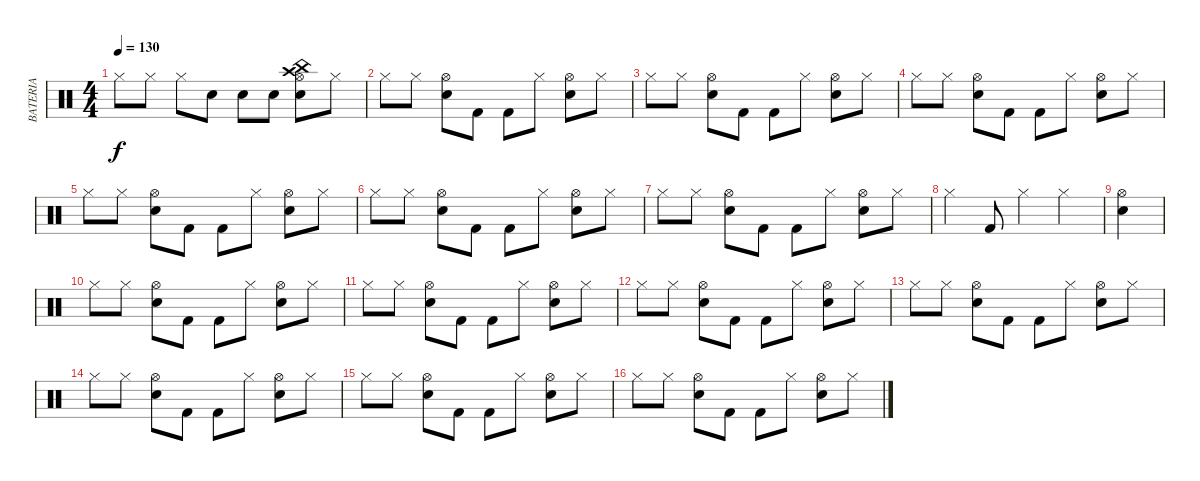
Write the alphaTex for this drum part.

\track ("BATERIA" "BATERIA") {mute instrument percussion}
\staff {score}
\articulation defaults
\ts (4 4)
\tempo 130
\clef neutral
\ks c "Hi-Hat (closed)".8{dy f} "Hi-Hat (closed)".8 "Hi-Hat (closed)".8 "Snare (hit) 2".8 "Snare (hit) 2".8 "Snare (hit) 2".8
("Snare (hit) 2" "Hi-Hat (open)" "China (hit)" "Crash high (hit)").8 "Hi-Hat (closed)".8 |
"Hi-Hat (closed)".8 "Hi-Hat (closed)".8 ("Snare (hit) 2" "Hi-Hat (open)").8 "Kick (hit) 2".8 "Kick (hit) 2".8 "Hi-Hat (closed)".8 ("Snare (hit) 2" "Hi-Hat (open)").8 "Hi-Hat (closed)".8 |
"Hi-Hat (closed)".8 "Hi-Hat (closed)".8 ("Snare (hit) 2" "Hi-Hat (open)").8 "Kick (hit) 2".8 "Kick (hit) 2".8 "Hi-Hat (closed)".8 ("Snare (hit) 2" "Hi-Hat (open)").8 "Hi-Hat (closed)".8 |
"Hi-Hat (closed)".8 "Hi-Hat (closed)".8 ("Snare (hit) 2" "Hi-Hat (open)").8 "Kick (hit) 2".8 "Kick (hit) 2".8 "Hi-Hat (closed)".8 ("Snare (hit) 2" "Hi-Hat (open)").8 "Hi-Hat (closed)".8 |
"Hi-Hat (closed)".8 "Hi-Hat (closed)".8 ("Snare (hit) 2" "Hi-Hat (open)").8 "Kick (hit) 2".8 "Kick (hit) 2".8 "Hi-Hat (closed)".8 ("Snare (hit) 2" "Hi-Hat (open)").8 "Hi-Hat (closed)".8 |
"Hi-Hat (closed)".8 "Hi-Hat (closed)".8 ("Snare (hit) 2" "Hi-Hat (open)").8 "Kick (hit) 2".8 "Kick (hit) 2".8 "Hi-Hat (closed)".8 ("Snare (hit) 2" "Hi-Hat (open)").8 "Hi-Hat (closed)".8 |
"Hi-Hat (closed)".8 "Hi-Hat (closed)".8 ("Snare (hit) 2" "Hi-Hat (open)").8 "Kick (hit) 2".8 "Kick (hit) 2".8 "Hi-Hat (closed)".8 ("Snare (hit) 2" "Hi-Hat (open)").8 "Hi-Hat (closed)".8 |
"Hi-Hat (closed)".4 "Kick (hit) 2".8 "Hi-Hat (closed)".4 "Hi-Hat (closed)".4 |
("Snare (hit) 2" "Hi-Hat (open)").4 |
"Hi-Hat (closed)".8 "Hi-Hat (closed)".8 ("Snare (hit) 2" "Hi-Hat (open)").8 "Kick (hit) 2".8 "Kick (hit) 2".8 "Hi-Hat (closed)".8 ("Snare (hit) 2" "Hi-Hat (open)").8 "Hi-Hat (closed)".8 |
"Hi-Hat (closed)".8 "Hi-Hat (closed)".8 ("Snare (hit) 2" "Hi-Hat (open)").8 "Kick (hit) 2".8 "Kick (hit) 2".8 "Hi-Hat (closed)".8 ("Snare (hit) 2" "Hi-Hat (open)").8 "Hi-Hat (closed)".8 |
"Hi-Hat (closed)".8 "Hi-Hat (closed)".8 ("Snare (hit) 2" "Hi-Hat (open)").8 "Kick (hit) 2".8 "Kick (hit) 2".8 "Hi-Hat (closed)".8 ("Snare (hit) 2" "Hi-Hat (open)").8 "Hi-Hat (closed)".8 |
"Hi-Hat (closed)".8 "Hi-Hat (closed)".8 ("Snare (hit) 2" "Hi-Hat (open)").8 "Kick (hit) 2".8 "Kick (hit) 2".8 "Hi-Hat (closed)".8 ("Snare (hit) 2" "Hi-Hat (open)").8 "Hi-Hat (closed)".8 |
"Hi-Hat (closed)".8 "Hi-Hat (closed)".8 ("Snare (hit) 2" "Hi-Hat (open)").8 "Kick (hit) 2".8 "Kick (hit) 2".8 "Hi-Hat (closed)".8 ("Snare (hit) 2" "Hi-Hat (open)").8 "Hi-Hat (closed)".8 |
"Hi-Hat (closed)".8 "Hi-Hat (closed)".8 ("Snare (hit) 2" "Hi-Hat (open)").8 "Kick (hit) 2".8 "Kick (hit) 2".8 "Hi-Hat (closed)".8 ("Snare (hit) 2" "Hi-Hat (open)").8 "Hi-Hat (closed)".8 |
"Hi-Hat (closed)".8 "Hi-Hat (closed)".8 ("Snare (hit) 2" "Hi-Hat (open)").8 "Kick (hit) 2".8 "Kick (hit) 2".8 "Hi-Hat (closed)".8 ("Snare (hit) 2" "Hi-Hat (open)").8 "Hi-Hat (closed)".8
